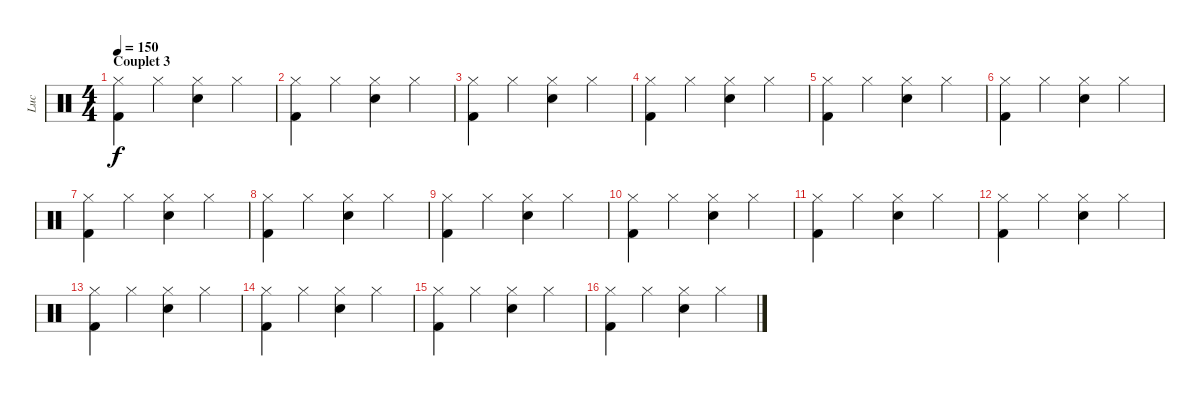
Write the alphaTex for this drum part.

\track ("Luc" "Luc") {instrument percussion}
\staff {score}
\articulation defaults
\ts (4 4)
\section ("" "Couplet 3")
\tempo 150
\clef neutral
\ks c
("Hi-Hat (closed)" "Kick (hit) 2").4{dy f} "Hi-Hat (closed)".4 ("Hi-Hat (closed)" "Snare (hit) 2").4 "Hi-Hat (closed)".4 |
("Hi-Hat (closed)" "Kick (hit) 2").4 "Hi-Hat (closed)".4 ("Hi-Hat (closed)" "Snare (hit) 2").4 "Hi-Hat (closed)".4 |
("Hi-Hat (closed)" "Kick (hit) 2").4 "Hi-Hat (closed)".4 ("Hi-Hat (closed)" "Snare (hit) 2").4 "Hi-Hat (closed)".4 |
("Hi-Hat (closed)" "Kick (hit) 2").4 "Hi-Hat (closed)".4 ("Hi-Hat (closed)" "Snare (hit) 2").4 "Hi-Hat (closed)".4 |
("Hi-Hat (closed)" "Kick (hit) 2").4 "Hi-Hat (closed)".4 ("Hi-Hat (closed)" "Snare (hit) 2").4 "Hi-Hat (closed)".4 |
("Hi-Hat (closed)" "Kick (hit) 2").4 "Hi-Hat (closed)".4 ("Hi-Hat (closed)" "Snare (hit) 2").4 "Hi-Hat (closed)".4 |
("Hi-Hat (closed)" "Kick (hit) 2").4 "Hi-Hat (closed)".4 ("Hi-Hat (closed)" "Snare (hit) 2").4 "Hi-Hat (closed)".4 |
("Hi-Hat (closed)" "Kick (hit) 2").4 "Hi-Hat (closed)".4 ("Hi-Hat (closed)" "Snare (hit) 2").4 "Hi-Hat (closed)".4 |
("Hi-Hat (closed)" "Kick (hit) 2").4 "Hi-Hat (closed)".4 ("Hi-Hat (closed)" "Snare (hit) 2").4 "Hi-Hat (closed)".4 |
("Hi-Hat (closed)" "Kick (hit) 2").4 "Hi-Hat (closed)".4 ("Hi-Hat (closed)" "Snare (hit) 2").4 "Hi-Hat (closed)".4 |
("Hi-Hat (closed)" "Kick (hit) 2").4 "Hi-Hat (closed)".4 ("Hi-Hat (closed)" "Snare (hit) 2").4 "Hi-Hat (closed)".4 |
("Hi-Hat (closed)" "Kick (hit) 2").4 "Hi-Hat (closed)".4 ("Hi-Hat (closed)" "Snare (hit) 2").4 "Hi-Hat (closed)".4 |
("Hi-Hat (closed)" "Kick (hit) 2").4 "Hi-Hat (closed)".4 ("Hi-Hat (closed)" "Snare (hit) 2").4 "Hi-Hat (closed)".4 |
("Hi-Hat (closed)" "Kick (hit) 2").4 "Hi-Hat (closed)".4 ("Hi-Hat (closed)" "Snare (hit) 2").4 "Hi-Hat (closed)".4 |
("Hi-Hat (closed)" "Kick (hit) 2").4 "Hi-Hat (closed)".4 ("Hi-Hat (closed)" "Snare (hit) 2").4 "Hi-Hat (closed)".4 |
("Hi-Hat (closed)" "Kick (hit) 2").4 "Hi-Hat (closed)".4 ("Hi-Hat (closed)" "Snare (hit) 2").4 "Hi-Hat (closed)".4
